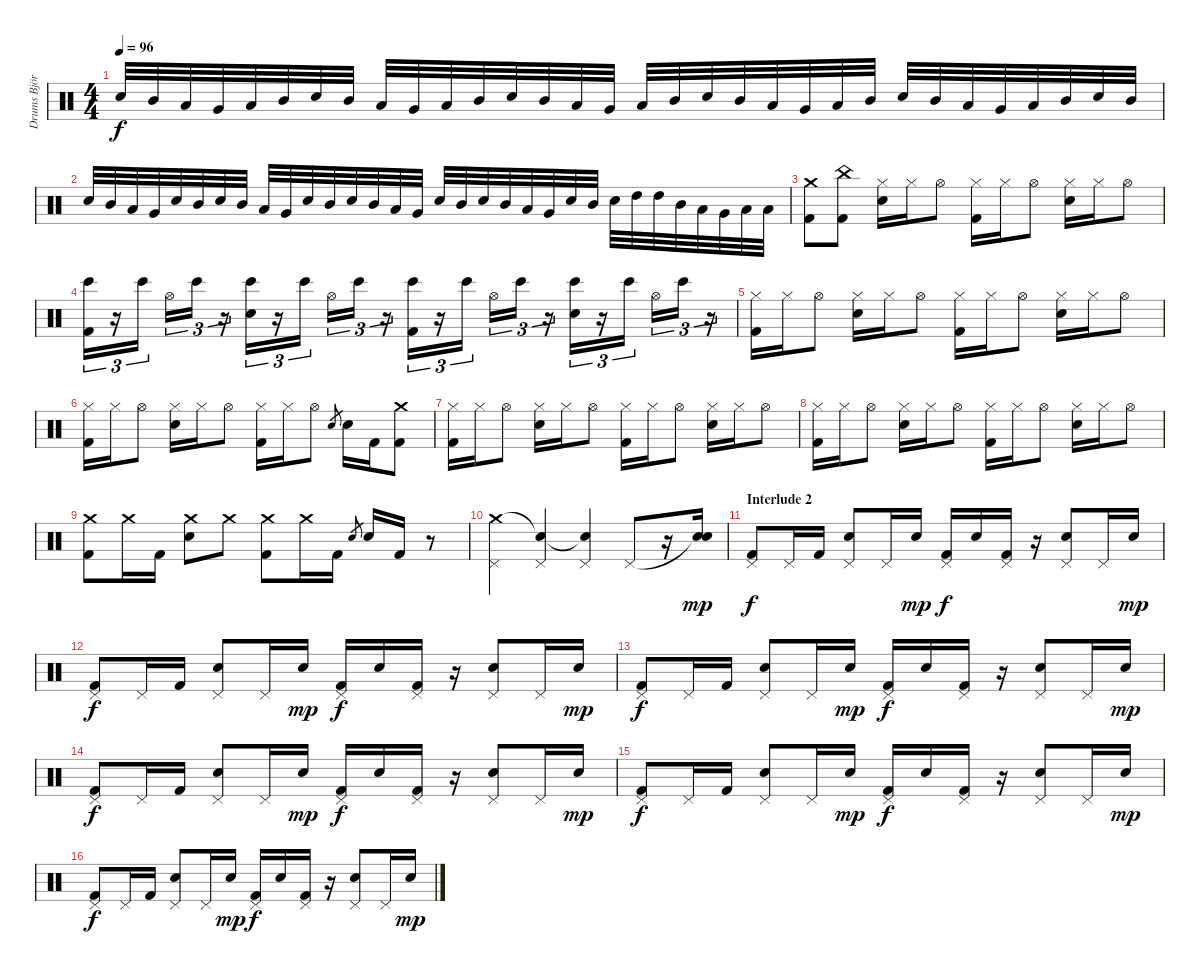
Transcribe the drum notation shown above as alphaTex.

\track ("Drums Björn Fryklund" "Drums Björ") {instrument percussion}
\staff {score}
\articulation defaults
\ts (4 4)
\tempo 96
\clef neutral
\ks c "Snare (hit) 2".32{dy f} "Mid Tom (hit)".32 "Low Tom (hit)".32 "Very Low Tom (hit)".32 "Low Tom (hit)".32 "Mid Tom (hit)".32 "Snare (hit) 2".32 "Mid Tom (hit)".32 "Low Tom (hit)".32 "Very Low Tom (hit)".32 "Low Tom (hit)".32 "Mid Tom (hit)".32 "Snare (hit) 2".32 "Mid Tom (hit)".32 "Low Tom (hit)".32 "Very Low Tom (hit)".32 "Low Tom (hit)".32 "Mid Tom (hit)".32 "Snare (hit) 2".32 "Mid Tom (hit)".32 "Low Tom (hit)".32 "Very Low Tom (hit)".32 "Low Tom (hit)".32 "Mid Tom (hit)".32 "Snare (hit) 2".32 "Mid Tom (hit)".32 "Low Tom (hit)".32 "Very Low Tom (hit)".32 "Low Tom (hit)".32 "Mid Tom (hit)".32 "Snare (hit) 2".32 "Mid Tom (hit)".32
|
"Snare (hit) 2".32 "Mid Tom (hit)".32 "Low Tom (hit)".32 "Very Low Tom (hit)".32 "Snare (hit) 2".32 "Mid Tom (hit)".32 "Snare (hit) 2".32 "Mid Tom (hit)".32 "Low Tom (hit)".32 "Very Low Tom (hit)".32 "Snare (hit) 2".32 "Mid Tom (hit)".32 "Snare (hit) 2".32 "Mid Tom (hit)".32 "Low Tom (hit)".32 "Very Low Tom (hit)".32 "Snare (hit) 2".32 "Mid Tom (hit)".32 "Snare (hit) 2".32 "Mid Tom (hit)".32 "Low Tom (hit)".32 "Very Low Tom (hit)".32 "Snare (hit) 2".32 "Mid Tom (hit)".32 "Snare (hit) 2".32 "High Tom (hit)".32 "High Tom (hit)".32 "Mid Tom (hit)".32 "Low Tom (hit)".32 "Very Low Tom (hit)".32 "Low Floor Tom (hit)".32 "Low Floor Tom (hit)".32 |
("Crash medium (hit)" "Kick (hit) 2").8 ("China (hit)" "Kick (hit) 2").8 ("Hi-Hat (closed)" "Snare (hit) 2").16 "Hi-Hat (closed)".16 "Hi-Hat (open)".8 ("Hi-Hat (closed)" "Kick (hit) 2").16 "Hi-Hat (closed)".16 "Hi-Hat (open)".8 ("Hi-Hat (closed)" "Snare (hit) 2").16 "Hi-Hat (closed)".16 "Hi-Hat (open)".8 |
("Bongo High (hit)" "Kick (hit) 2").16{tu (3 2)} r.16{tu (3 2)} "Bongo High (hit)".16{tu (3 2)} "Hi-Hat (open)".16{tu (3 2)} "Bongo High (hit)".16{tu (3 2)} r.16{tu (3 2)} ("Bongo High (hit)" "Snare (hit) 2").16{tu (3 2)} r.16{tu (3 2)} "Bongo High (hit)".16{tu (3 2)} "Hi-Hat (open)".16{tu (3 2)} "Bongo High (hit)".16{tu (3 2)} r.16{tu (3 2)} ("Bongo High (hit)" "Kick (hit) 2").16{tu (3 2)} r.16{tu (3 2)} "Bongo High (hit)".16{tu (3 2)} "Hi-Hat (open)".16{tu (3 2)} "Bongo High (hit)".16{tu (3 2)} r.16{tu (3 2)} ("Bongo High (hit)" "Snare (hit) 2").16{tu (3 2)} r.16{tu (3 2)} "Bongo High (hit)".16{tu (3 2)} "Hi-Hat (open)".16{tu (3 2)} "Bongo High (hit)".16{tu (3 2)} r.16{tu (3 2)} |
("Hi-Hat (closed)" "Kick (hit) 2").16 "Hi-Hat (closed)".16 "Hi-Hat (open)".8 ("Hi-Hat (closed)" "Snare (hit) 2").16 "Hi-Hat (closed)".16 "Hi-Hat (open)".8 ("Hi-Hat (closed)" "Kick (hit) 2").16 "Hi-Hat (closed)".16 "Hi-Hat (open)".8 ("Hi-Hat (closed)" "Snare (hit) 2").16 "Hi-Hat (closed)".16 "Hi-Hat (open)".8 |
("Hi-Hat (closed)" "Kick (hit) 2").16 "Hi-Hat (closed)".16 "Hi-Hat (open)".8 ("Hi-Hat (closed)" "Snare (hit) 2").16 "Hi-Hat (closed)".16 "Hi-Hat (open)".8 ("Hi-Hat (closed)" "Kick (hit) 2").16 "Hi-Hat (closed)".16 "Hi-Hat (open)".8 "Snare (hit) 2".8{gr} "Snare (hit) 2".16 "Kick (hit) 2".16 ("Crash medium (hit)" "Kick (hit) 2").8 |
("Hi-Hat (closed)" "Kick (hit) 2").16 "Hi-Hat (closed)".16 "Hi-Hat (open)".8 ("Hi-Hat (closed)" "Snare (hit) 2").16 "Hi-Hat (closed)".16 "Hi-Hat (open)".8 ("Hi-Hat (closed)" "Kick (hit) 2").16 "Hi-Hat (closed)".16 "Hi-Hat (open)".8 ("Hi-Hat (closed)" "Snare (hit) 2").16 "Hi-Hat (closed)".16 "Hi-Hat (open)".8 |
("Hi-Hat (closed)" "Kick (hit) 2").16 "Hi-Hat (closed)".16 "Hi-Hat (open)".8 ("Hi-Hat (closed)" "Snare (hit) 2").16 "Hi-Hat (closed)".16 "Hi-Hat (open)".8 ("Hi-Hat (closed)" "Kick (hit) 2").16 "Hi-Hat (closed)".16 "Hi-Hat (open)".8 ("Hi-Hat (closed)" "Snare (hit) 2").16 "Hi-Hat (closed)".16 "Hi-Hat (open)".8 |
("Crash medium (hit)" "Kick (hit) 2").8 "Crash medium (hit)".16 "Kick (hit) 2".16 ("Crash medium (hit)" "Snare (hit) 2").8 "Crash medium (hit)".8 ("Crash medium (hit)" "Kick (hit) 2").8 "Crash medium (hit)".16 "Kick (hit) 2".16 "Snare (hit) 2".8{gr} "Snare (hit) 2".16 "Kick (hit) 2".16 r.8 |
("Crash medium (hit)"{tr (57 64)} "Pedal Hi-Hat (hit)").4 ("Snare (hit)"{t} "Pedal Hi-Hat (hit)").4 ("Snare (hit)"{t} "Pedal Hi-Hat (hit)").4 "Pedal Hi-Hat (hit)".8 r.16 ("Snare (hit)"{t} "Snare (hit) 2"{tr (38 64)}).16{dy mp} |
\section ("" "Interlude 2")
("Pedal Hi-Hat (hit)" "Kick (hit) 2").8{dy f} "Pedal Hi-Hat (hit)".16 "Kick (hit) 2".16 ("Pedal Hi-Hat (hit)" "Snare (hit) 2").8 "Pedal Hi-Hat (hit)".16 "Snare (hit) 2"{tr (38 64)}.16{dy mp} ("Pedal Hi-Hat (hit)" "Kick (hit) 2").16{dy f} "Snare (hit) 2".16 ("Pedal Hi-Hat (hit)" "Kick (hit) 2").16 r.16 ("Pedal Hi-Hat (hit)" "Snare (hit) 2").8 "Pedal Hi-Hat (hit)".16 "Snare (hit) 2"{tr (38 64)}.16{dy mp} |
("Pedal Hi-Hat (hit)" "Kick (hit) 2").8{dy f} "Pedal Hi-Hat (hit)".16 "Kick (hit) 2".16 ("Pedal Hi-Hat (hit)" "Snare (hit) 2").8 "Pedal Hi-Hat (hit)".16 "Snare (hit) 2"{tr (38 64)}.16{dy mp} ("Pedal Hi-Hat (hit)" "Kick (hit) 2").16{dy f} "Snare (hit) 2".16 ("Pedal Hi-Hat (hit)" "Kick (hit) 2").16 r.16 ("Pedal Hi-Hat (hit)" "Snare (hit) 2").8 "Pedal Hi-Hat (hit)".16 "Snare (hit) 2"{tr (38 64)}.16{dy mp} |
("Pedal Hi-Hat (hit)" "Kick (hit) 2").8{dy f} "Pedal Hi-Hat (hit)".16 "Kick (hit) 2".16 ("Pedal Hi-Hat (hit)" "Snare (hit) 2").8 "Pedal Hi-Hat (hit)".16 "Snare (hit) 2"{tr (38 64)}.16{dy mp} ("Pedal Hi-Hat (hit)" "Kick (hit) 2").16{dy f} "Snare (hit) 2".16 ("Pedal Hi-Hat (hit)" "Kick (hit) 2").16 r.16 ("Pedal Hi-Hat (hit)" "Snare (hit) 2").8 "Pedal Hi-Hat (hit)".16 "Snare (hit) 2"{tr (38 64)}.16{dy mp} |
("Pedal Hi-Hat (hit)" "Kick (hit) 2").8{dy f} "Pedal Hi-Hat (hit)".16 "Kick (hit) 2".16 ("Pedal Hi-Hat (hit)" "Snare (hit) 2").8 "Pedal Hi-Hat (hit)".16 "Snare (hit) 2"{tr (38 64)}.16{dy mp} ("Pedal Hi-Hat (hit)" "Kick (hit) 2").16{dy f} "Snare (hit) 2".16 ("Pedal Hi-Hat (hit)" "Kick (hit) 2").16 r.16 ("Pedal Hi-Hat (hit)" "Snare (hit) 2").8 "Pedal Hi-Hat (hit)".16 "Snare (hit) 2"{tr (38 64)}.16{dy mp} |
("Pedal Hi-Hat (hit)" "Kick (hit) 2").8{dy f} "Pedal Hi-Hat (hit)".16 "Kick (hit) 2".16 ("Pedal Hi-Hat (hit)" "Snare (hit) 2").8 "Pedal Hi-Hat (hit)".16 "Snare (hit) 2"{tr (38 64)}.16{dy mp} ("Pedal Hi-Hat (hit)" "Kick (hit) 2").16{dy f} "Snare (hit) 2".16 ("Pedal Hi-Hat (hit)" "Kick (hit) 2").16 r.16 ("Pedal Hi-Hat (hit)" "Snare (hit) 2").8 "Pedal Hi-Hat (hit)".16 "Snare (hit) 2"{tr (38 64)}.16{dy mp} |
("Pedal Hi-Hat (hit)" "Kick (hit) 2").8{dy f} "Pedal Hi-Hat (hit)".16 "Kick (hit) 2".16 ("Pedal Hi-Hat (hit)" "Snare (hit) 2").8 "Pedal Hi-Hat (hit)".16 "Snare (hit) 2"{tr (38 64)}.16{dy mp} ("Pedal Hi-Hat (hit)" "Kick (hit) 2").16{dy f} "Snare (hit) 2".16 ("Pedal Hi-Hat (hit)" "Kick (hit) 2").16 r.16 ("Pedal Hi-Hat (hit)" "Snare (hit) 2").8 "Pedal Hi-Hat (hit)".16 "Snare (hit) 2"{tr (38 64)}.16{dy mp}
